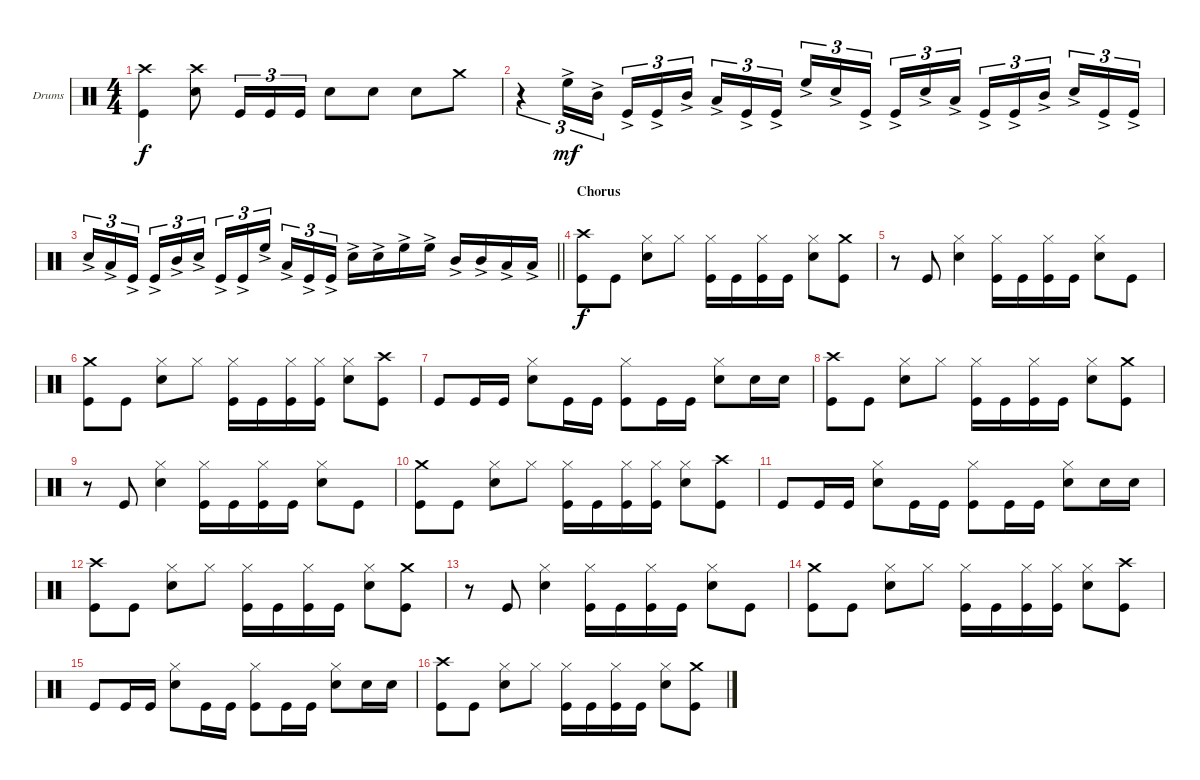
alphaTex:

\bracketExtendMode groupsimilarinstruments
\firstSystemTrackNameOrientation horizontal
\otherSystemsTrackNameOrientation horizontal
\track ("Percussion" "Drums") {instrument percussion}
\staff {score}
\articulation defaults
\ts (4 4)
\tempo (142 hide)
\clef neutral
\ks c
("Crash high (hit)" "Kick (hit)").4{dy f} ("Crash high (hit)" "Snare (hit) 2").8 "Kick (hit)".16{tu (3 2)} "Kick (hit)".16{tu (3 2)} "Kick (hit)".16{tu (3 2)} "Snare (hit) 2".8 "Snare (hit) 2".8 "Snare (hit) 2".8 "Crash medium (hit)".8 |
r.4{tu (3 2)} "High Floor Tom (hit)"{ac}.16{tu (3 2) dy mf} "Mid Tom (hit)"{ac}.16{tu (3 2)} "Kick (hit)"{ac}.16{tu (3 2)} "Kick (hit)"{ac}.16{tu (3 2)} "Mid Tom (hit)"{ac}.16{tu (3 2)} "Low Tom (hit)"{ac}.16{tu (3 2)} "Kick (hit)"{ac}.16{tu (3 2)} "Kick (hit)"{ac}.16{tu (3 2)} "High Floor Tom (hit)"{ac}.16{tu (3 2)} "Snare (hit) 2"{ac}.16{tu (3 2)} "Kick (hit)"{ac}.16{tu (3 2)} "Kick (hit)"{ac}.16{tu (3 2)} "Snare (hit) 2"{ac}.16{tu (3 2)} "Low Tom (hit)"{ac}.16{tu (3 2)} "Kick (hit)"{ac}.16{tu (3 2)} "Kick (hit)"{ac}.16{tu (3 2)} "Mid Tom (hit)"{ac}.16{tu (3 2)} "Snare (hit) 2"{ac}.16{tu (3 2)} "Kick (hit)"{ac}.16{tu (3 2)} "Kick (hit)"{ac}.16{tu (3 2)} |
\barLineRight lightlight "Snare (hit) 2"{ac}.16{tu (3 2)} "Low Tom (hit)"{ac}.16{tu (3 2)} "Kick (hit)"{ac}.16{tu (3 2)} "Kick (hit)"{ac}.16{tu (3 2)} "Mid Tom (hit)"{ac}.16{tu (3 2)} "Snare (hit) 2"{ac}.16{tu (3 2)} "Kick (hit)"{ac}.16{tu (3 2)} "Kick (hit)"{ac}.16{tu (3 2)} "High Floor Tom (hit)"{ac}.16{tu (3 2)} "Low Tom (hit)"{ac}.16{tu (3 2)} "Kick (hit)"{ac}.16{tu (3 2)} "Kick (hit)"{ac}.16{tu (3 2)} "Snare (hit) 2"{ac}.16 "Snare (hit) 2"{ac}.16 "High Floor Tom (hit)"{ac}.16 "High Floor Tom (hit)"{ac}.16 "Mid Tom (hit)"{ac}.16 "Mid Tom (hit)"{ac}.16 "Low Tom (hit)"{ac}.16 "Low Tom (hit)"{ac}.16
|
\section ("" "Chorus")
("Crash high (hit)" "Kick (hit)").8{dy f} "Kick (hit)".8 ("Hi-Hat (closed)" "Snare (hit) 2").8 "Hi-Hat (closed)".8 ("Hi-Hat (closed)" "Kick (hit)").16 "Kick (hit)".16 ("Hi-Hat (closed)" "Kick (hit)").16 "Kick (hit)".16 ("Hi-Hat (closed)" "Snare (hit) 2").8 ("Crash medium (hit)" "Kick (hit)").8 |
r.8 "Kick (hit)".8 ("Hi-Hat (closed)" "Snare (hit) 2").4 ("Hi-Hat (closed)" "Kick (hit)").16 "Kick (hit)".16 ("Hi-Hat (closed)" "Kick (hit)").16 "Kick (hit)".16 ("Hi-Hat (closed)" "Snare (hit) 2").8 "Kick (hit)".8 |
("Crash medium (hit)" "Kick (hit)").8 "Kick (hit)".8 ("Hi-Hat (closed)" "Snare (hit) 2").8 "Hi-Hat (closed)".8 ("Hi-Hat (closed)" "Kick (hit)").16 "Kick (hit)".16 ("Hi-Hat (closed)" "Kick (hit)").16 ("Hi-Hat (closed)" "Kick (hit)").16 ("Hi-Hat (closed)" "Snare (hit) 2").8 ("Crash high (hit)" "Kick (hit)").8 |
"Kick (hit)".8 "Kick (hit)".16 "Kick (hit)".16 ("Hi-Hat (closed)" "Snare (hit) 2").8 "Kick (hit)".16 "Kick (hit)".16 ("Hi-Hat (closed)" "Kick (hit)").8 "Kick (hit)".16 "Kick (hit)".16 ("Hi-Hat (closed)" "Snare (hit) 2").8 "Snare (hit) 2".16 "Snare (hit) 2".16 |
("Crash high (hit)" "Kick (hit)").8 "Kick (hit)".8 ("Hi-Hat (closed)" "Snare (hit) 2").8 "Hi-Hat (closed)".8 ("Hi-Hat (closed)" "Kick (hit)").16 "Kick (hit)".16 ("Hi-Hat (closed)" "Kick (hit)").16 "Kick (hit)".16 ("Hi-Hat (closed)" "Snare (hit) 2").8 ("Crash medium (hit)" "Kick (hit)").8 |
r.8 "Kick (hit)".8 ("Hi-Hat (closed)" "Snare (hit) 2").4 ("Hi-Hat (closed)" "Kick (hit)").16 "Kick (hit)".16 ("Hi-Hat (closed)" "Kick (hit)").16 "Kick (hit)".16 ("Hi-Hat (closed)" "Snare (hit) 2").8 "Kick (hit)".8 |
("Crash medium (hit)" "Kick (hit)").8 "Kick (hit)".8 ("Hi-Hat (closed)" "Snare (hit) 2").8 "Hi-Hat (closed)".8 ("Hi-Hat (closed)" "Kick (hit)").16 "Kick (hit)".16 ("Hi-Hat (closed)" "Kick (hit)").16 ("Hi-Hat (closed)" "Kick (hit)").16 ("Hi-Hat (closed)" "Snare (hit) 2").8 ("Crash high (hit)" "Kick (hit)").8 |
"Kick (hit)".8 "Kick (hit)".16 "Kick (hit)".16 ("Hi-Hat (closed)" "Snare (hit) 2").8 "Kick (hit)".16 "Kick (hit)".16 ("Hi-Hat (closed)" "Kick (hit)").8 "Kick (hit)".16 "Kick (hit)".16 ("Hi-Hat (closed)" "Snare (hit) 2").8 "Snare (hit) 2".16 "Snare (hit) 2".16 |
("Crash high (hit)" "Kick (hit)").8 "Kick (hit)".8 ("Hi-Hat (closed)" "Snare (hit) 2").8 "Hi-Hat (closed)".8 ("Hi-Hat (closed)" "Kick (hit)").16 "Kick (hit)".16 ("Hi-Hat (closed)" "Kick (hit)").16 "Kick (hit)".16 ("Hi-Hat (closed)" "Snare (hit) 2").8 ("Crash medium (hit)" "Kick (hit)").8 |
r.8 "Kick (hit)".8 ("Hi-Hat (closed)" "Snare (hit) 2").4 ("Hi-Hat (closed)" "Kick (hit)").16 "Kick (hit)".16 ("Hi-Hat (closed)" "Kick (hit)").16 "Kick (hit)".16 ("Hi-Hat (closed)" "Snare (hit) 2").8 "Kick (hit)".8 |
("Crash medium (hit)" "Kick (hit)").8 "Kick (hit)".8 ("Hi-Hat (closed)" "Snare (hit) 2").8 "Hi-Hat (closed)".8 ("Hi-Hat (closed)" "Kick (hit)").16 "Kick (hit)".16 ("Hi-Hat (closed)" "Kick (hit)").16 ("Hi-Hat (closed)" "Kick (hit)").16 ("Hi-Hat (closed)" "Snare (hit) 2").8 ("Crash high (hit)" "Kick (hit)").8 |
"Kick (hit)".8 "Kick (hit)".16 "Kick (hit)".16 ("Hi-Hat (closed)" "Snare (hit) 2").8 "Kick (hit)".16 "Kick (hit)".16 ("Hi-Hat (closed)" "Kick (hit)").8 "Kick (hit)".16 "Kick (hit)".16 ("Hi-Hat (closed)" "Snare (hit) 2").8 "Snare (hit) 2".16 "Snare (hit) 2".16 |
("Crash high (hit)" "Kick (hit)").8 "Kick (hit)".8 ("Hi-Hat (closed)" "Snare (hit) 2").8 "Hi-Hat (closed)".8 ("Hi-Hat (closed)" "Kick (hit)").16 "Kick (hit)".16 ("Hi-Hat (closed)" "Kick (hit)").16 "Kick (hit)".16 ("Hi-Hat (closed)" "Snare (hit) 2").8 ("Crash medium (hit)" "Kick (hit)").8
